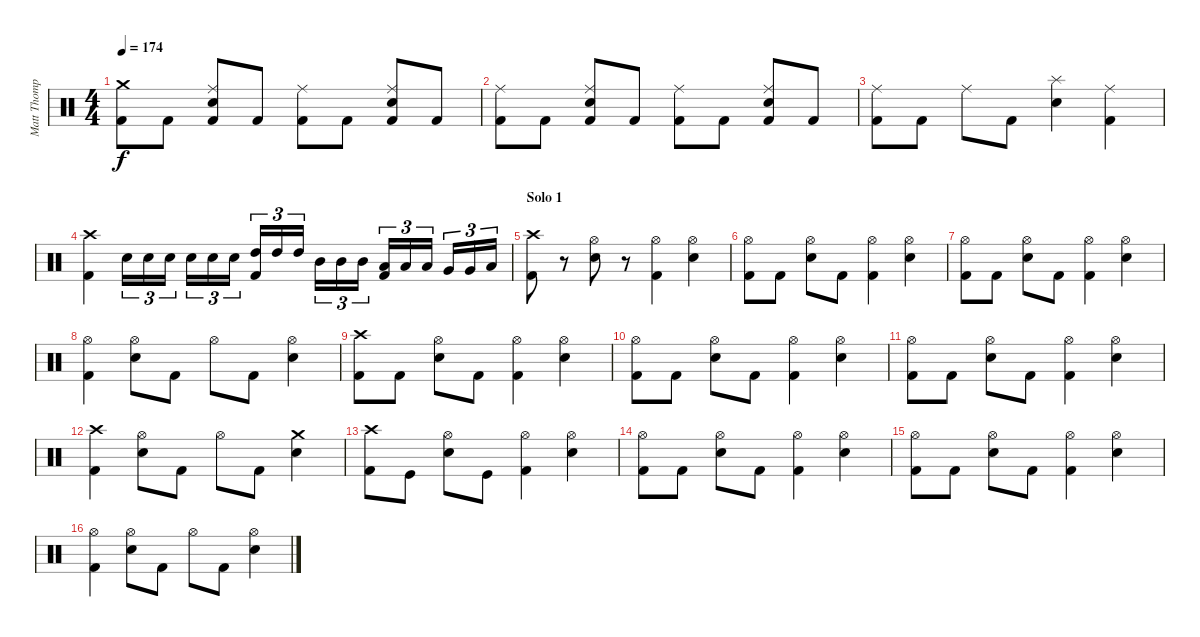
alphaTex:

\track ("Matt Thompson" "Matt Thomp") {instrument percussion}
\staff {score}
\articulation defaults
\ts (4 4)
\tempo 174
\clef neutral
\ks c
("Crash medium (hit)" "Kick (hit) 2").8{dy f} "Kick (hit) 2".8 ("Ride (middle)" "Snare (hit) 2" "Kick (hit) 2").8 "Kick (hit) 2".8 ("Ride (middle)" "Kick (hit) 2").8 "Kick (hit) 2".8 ("Ride (middle)" "Snare (hit) 2" "Kick (hit) 2").8 "Kick (hit) 2".8 |
("Ride (middle)" "Kick (hit) 2").8 "Kick (hit) 2".8 ("Ride (middle)" "Snare (hit) 2" "Kick (hit) 2").8 "Kick (hit) 2".8 ("Ride (middle)" "Kick (hit) 2").8 "Kick (hit) 2".8 ("Ride (middle)" "Snare (hit) 2" "Kick (hit) 2").8 "Kick (hit) 2".8 |
("Ride (middle)" "Kick (hit) 2").8 "Kick (hit) 2".8 "Ride (middle)".8 "Kick (hit) 2".8 ("Splash (hit)" "Snare (hit) 2").4 ("Ride (middle)" "Kick (hit) 2").4 |
("Crash high (hit)" "Kick (hit) 2").4 "Snare (hit) 2".16{tu (3 2)} "Snare (hit) 2".16{tu (3 2)} "Snare (hit) 2".16{tu (3 2)} "Snare (hit) 2".16{tu (3 2)} "Snare (hit) 2".16{tu (3 2)} "Snare (hit) 2".16{tu (3 2)} ("High Tom (hit)" "Kick (hit) 2").16{tu (3 2)} "High Tom (hit)".16{tu (3 2)} "High Tom (hit)".16{tu (3 2)} "Mid Tom (hit)".16{tu (3 2)} "Mid Tom (hit)".16{tu (3 2)} "Mid Tom (hit)".16{tu (3 2)} ("Low Tom (hit)" "Kick (hit) 2").16{tu (3 2)} "Low Tom (hit)".16{tu (3 2)} "Low Tom (hit)".16{tu (3 2)} "Very Low Tom (hit)".16{tu (3 2)} "Very Low Tom (hit)".16{tu (3 2)} "Low Floor Tom (hit)".16{tu (3 2)} |
\section ("" "Solo 1")
("Crash high (hit)" "Kick (hit) 2").8 r.8 ("Hi-Hat (open)" "Snare (hit) 2").8 r.8 ("Hi-Hat (open)" "Kick (hit) 2").4 ("Hi-Hat (open)" "Snare (hit) 2").4 |
("Hi-Hat (open)" "Kick (hit) 2").8 "Kick (hit) 2".8 ("Hi-Hat (open)" "Snare (hit) 2").8 "Kick (hit) 2".8 ("Hi-Hat (open)" "Kick (hit) 2").4 ("Hi-Hat (open)" "Snare (hit) 2").4 |
("Hi-Hat (open)" "Kick (hit) 2").8 "Kick (hit) 2".8 ("Hi-Hat (open)" "Snare (hit) 2").8 "Kick (hit) 2".8 ("Hi-Hat (open)" "Kick (hit) 2").4 ("Hi-Hat (open)" "Snare (hit) 2").4 |
("Hi-Hat (open)" "Kick (hit) 2").4 ("Hi-Hat (open)" "Snare (hit) 2").8 "Kick (hit) 2".8 "Hi-Hat (open)".8 "Kick (hit) 2".8 ("Hi-Hat (open)" "Snare (hit) 2").4 |
("Crash high (hit)" "Kick (hit) 2").8 "Kick (hit) 2".8 ("Hi-Hat (open)" "Snare (hit) 2").8 "Kick (hit) 2".8 ("Hi-Hat (open)" "Kick (hit) 2").4 ("Hi-Hat (open)" "Snare (hit) 2").4 |
("Hi-Hat (open)" "Kick (hit) 2").8 "Kick (hit) 2".8 ("Hi-Hat (open)" "Snare (hit) 2").8 "Kick (hit) 2".8 ("Hi-Hat (open)" "Kick (hit) 2").4 ("Hi-Hat (open)" "Snare (hit) 2").4 |
("Hi-Hat (open)" "Kick (hit) 2").8 "Kick (hit) 2".8 ("Hi-Hat (open)" "Snare (hit) 2").8 "Kick (hit) 2".8 ("Hi-Hat (open)" "Kick (hit) 2").4 ("Hi-Hat (open)" "Snare (hit) 2").4 |
("Crash high (hit)" "Kick (hit) 2").4 ("Hi-Hat (open)" "Snare (hit) 2").8 "Kick (hit) 2".8 "Hi-Hat (open)".8 "Kick (hit) 2".8 ("Crash medium (hit)" "Snare (hit) 2").4 |
("Crash high (hit)" "Kick (hit) 2").8 "Kick (hit)".8 ("Hi-Hat (open)" "Snare (hit) 2").8 "Kick (hit)".8 ("Hi-Hat (open)" "Kick (hit) 2").4 ("Hi-Hat (open)" "Snare (hit) 2").4 |
("Hi-Hat (open)" "Kick (hit) 2").8 "Kick (hit) 2".8 ("Hi-Hat (open)" "Snare (hit) 2").8 "Kick (hit) 2".8 ("Hi-Hat (open)" "Kick (hit) 2").4 ("Hi-Hat (open)" "Snare (hit) 2").4 |
("Hi-Hat (open)" "Kick (hit) 2").8 "Kick (hit) 2".8 ("Hi-Hat (open)" "Snare (hit) 2").8 "Kick (hit) 2".8 ("Hi-Hat (open)" "Kick (hit) 2").4 ("Hi-Hat (open)" "Snare (hit) 2").4 |
("Hi-Hat (open)" "Kick (hit) 2").4 ("Hi-Hat (open)" "Snare (hit) 2").8 "Kick (hit) 2".8 "Hi-Hat (open)".8 "Kick (hit) 2".8 ("Hi-Hat (open)" "Snare (hit) 2").4
